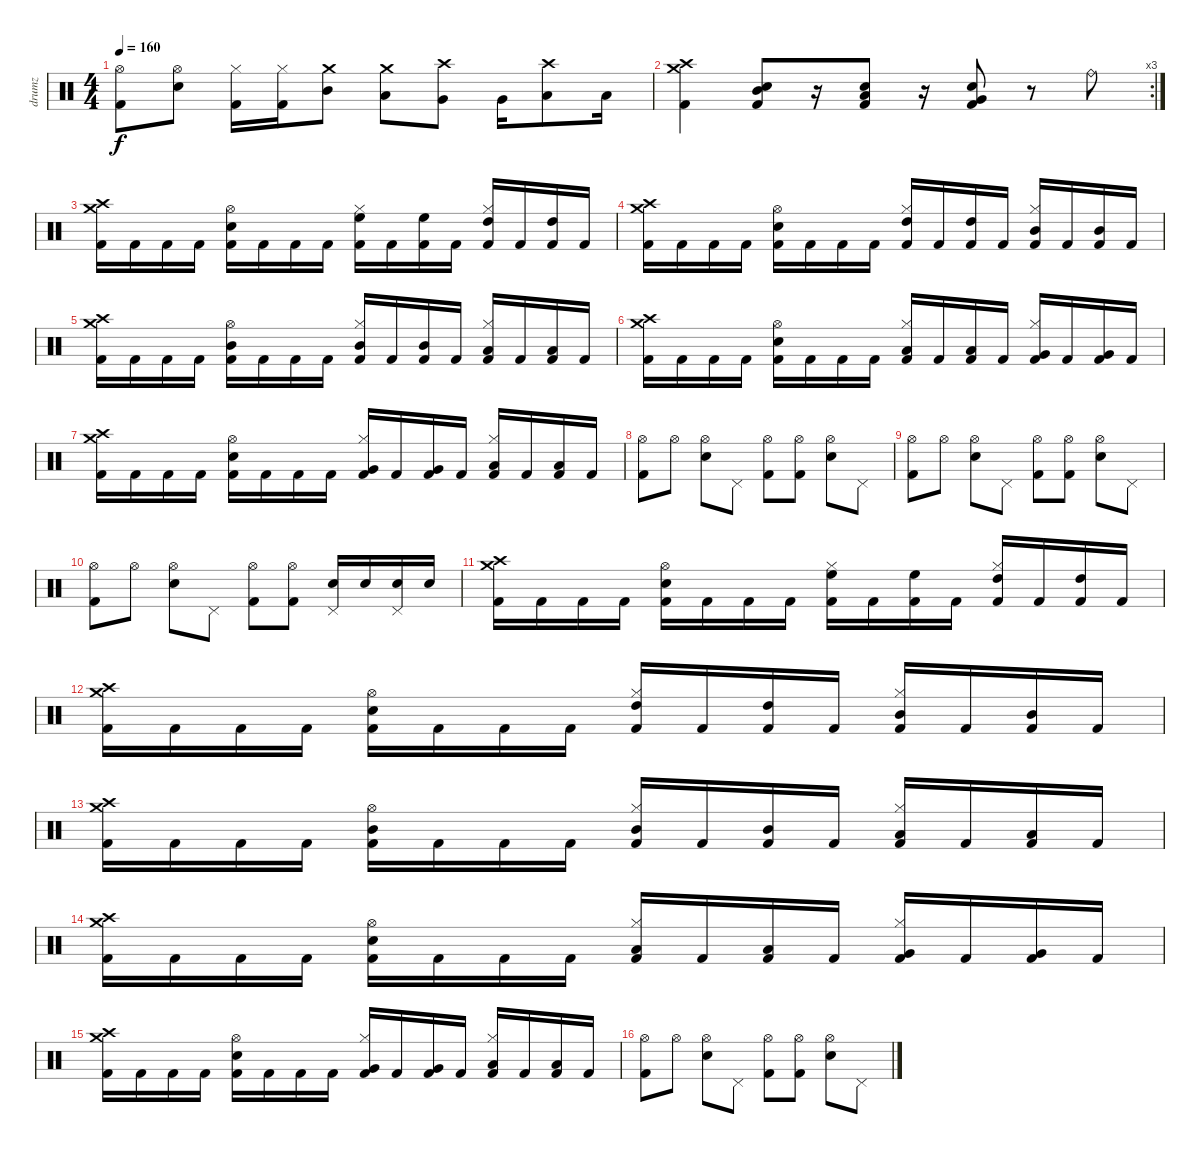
\track ("drumz" "drumz") {instrument percussion}
\staff {score}
\articulation defaults
\ts (4 4)
\tempo 160
\clef neutral
\ks c
("Hi-Hat (open)" "Kick (hit) 2").8{dy f} ("Hi-Hat (open)" "Snare (hit) 2").8 ("Hi-Hat (closed)" "Kick (hit) 2").16 ("Hi-Hat (closed)" "Kick (hit) 2").16 ("Crash medium (hit)" "Mid Tom (hit)").8 ("Crash medium (hit)" "Low Tom (hit)").8 ("Crash high (hit)" "Very Low Tom (hit)").8 "Very Low Tom (hit)".16 ("Crash high (hit)" "Low Floor Tom (hit)").8 "Low Floor Tom (hit)".16 |
\rc 3
("Crash medium (hit)" "Crash high (hit)" "Kick (hit) 2").4 ("Mid Tom (hit)" "Snare (hit) 2" "Kick (hit) 2").8 r.16 ("Low Tom (hit)" "Snare (hit) 2" "Kick (hit) 2").8 r.16 ("Very Low Tom (hit)" "Snare (hit) 2" "Kick (hit) 2").8 r.8 "Ride (bell)".8 |
("Crash medium (hit)" "Crash high (hit)" "Kick (hit) 2").16 "Kick (hit) 2".16 "Kick (hit) 2".16 "Kick (hit) 2".16 ("Hi-Hat (open)" "Snare (hit) 2" "Kick (hit) 2").16 "Kick (hit) 2".16 "Kick (hit) 2".16 "Kick (hit) 2".16 ("Hi-Hat (closed)" "High Floor Tom (hit)" "Kick (hit) 2").16 "Kick (hit) 2".16 ("High Floor Tom (hit)" "Kick (hit) 2").16 "Kick (hit) 2".16 ("Hi-Hat (closed)" "High Tom (hit)" "Kick (hit) 2").16 "Kick (hit) 2".16 ("High Tom (hit)" "Kick (hit) 2").16 "Kick (hit) 2".16 |
("Crash medium (hit)" "Crash high (hit)" "Kick (hit) 2").16 "Kick (hit) 2".16 "Kick (hit) 2".16 "Kick (hit) 2".16 ("Hi-Hat (open)" "Snare (hit) 2" "Kick (hit) 2").16 "Kick (hit) 2".16 "Kick (hit) 2".16 "Kick (hit) 2".16 ("Hi-Hat (closed)" "High Tom (hit)" "Kick (hit) 2").16 "Kick (hit) 2".16 ("High Tom (hit)" "Kick (hit) 2").16 "Kick (hit) 2".16 ("Hi-Hat (closed)" "Mid Tom (hit)" "Kick (hit) 2").16 "Kick (hit) 2".16 ("Mid Tom (hit)" "Kick (hit) 2").16 "Kick (hit) 2".16 |
("Crash medium (hit)" "Crash high (hit)" "Kick (hit) 2").16 "Kick (hit) 2".16 "Kick (hit) 2".16 "Kick (hit) 2".16 ("Hi-Hat (open)" "Mid Tom (hit)" "Kick (hit) 2").16 "Kick (hit) 2".16 "Kick (hit) 2".16 "Kick (hit) 2".16 ("Hi-Hat (closed)" "Mid Tom (hit)" "Kick (hit) 2").16 "Kick (hit) 2".16 ("Mid Tom (hit)" "Kick (hit) 2").16 "Kick (hit) 2".16 ("Hi-Hat (closed)" "Low Tom (hit)" "Kick (hit) 2").16 "Kick (hit) 2".16 ("Low Tom (hit)" "Kick (hit) 2").16 "Kick (hit) 2".16 |
("Crash medium (hit)" "Crash high (hit)" "Kick (hit) 2").16 "Kick (hit) 2".16 "Kick (hit) 2".16 "Kick (hit) 2".16 ("Hi-Hat (open)" "Snare (hit) 2" "Kick (hit) 2").16 "Kick (hit) 2".16 "Kick (hit) 2".16 "Kick (hit) 2".16 ("Hi-Hat (closed)" "Low Tom (hit)" "Kick (hit) 2").16 "Kick (hit) 2".16 ("Low Tom (hit)" "Kick (hit) 2").16 "Kick (hit) 2".16 ("Hi-Hat (closed)" "Very Low Tom (hit)" "Kick (hit) 2").16 "Kick (hit) 2".16 ("Very Low Tom (hit)" "Kick (hit) 2").16 "Kick (hit) 2".16 |
("Crash medium (hit)" "Crash high (hit)" "Kick (hit) 2").16 "Kick (hit) 2".16 "Kick (hit) 2".16 "Kick (hit) 2".16 ("Hi-Hat (open)" "Snare (hit) 2" "Kick (hit) 2").16 "Kick (hit) 2".16 "Kick (hit) 2".16 "Kick (hit) 2".16 ("Hi-Hat (closed)" "Very Low Tom (hit)" "Kick (hit) 2").16 "Kick (hit) 2".16 ("Very Low Tom (hit)" "Kick (hit) 2").16 "Kick (hit) 2".16 ("Hi-Hat (closed)" "Low Floor Tom (hit)" "Kick (hit) 2").16 "Kick (hit) 2".16 ("Low Floor Tom (hit)" "Kick (hit) 2").16 "Kick (hit) 2".16 |
("Hi-Hat (open)" "Kick (hit) 2").8 "Hi-Hat (open)".8 ("Hi-Hat (open)" "Snare (hit) 2").8 "Pedal Hi-Hat (hit)".8 ("Hi-Hat (open)" "Kick (hit) 2").8 ("Hi-Hat (open)" "Kick (hit) 2").8 ("Hi-Hat (open)" "Snare (hit) 2").8 "Pedal Hi-Hat (hit)".8 |
("Hi-Hat (open)" "Kick (hit) 2").8 "Hi-Hat (open)".8 ("Hi-Hat (open)" "Snare (hit) 2").8 "Pedal Hi-Hat (hit)".8 ("Hi-Hat (open)" "Kick (hit) 2").8 ("Hi-Hat (open)" "Kick (hit) 2").8 ("Hi-Hat (open)" "Snare (hit) 2").8 "Pedal Hi-Hat (hit)".8 |
("Hi-Hat (open)" "Kick (hit) 2").8 "Hi-Hat (open)".8 ("Hi-Hat (open)" "Snare (hit) 2").8 "Pedal Hi-Hat (hit)".8 ("Hi-Hat (open)" "Kick (hit) 2").8 ("Hi-Hat (open)" "Kick (hit) 2").8 ("Pedal Hi-Hat (hit)" "Snare (hit) 2").16 "Snare (hit) 2".16 ("Pedal Hi-Hat (hit)" "Snare (hit) 2").16 "Snare (hit) 2".16 |
("Crash medium (hit)" "Crash high (hit)" "Kick (hit) 2").16 "Kick (hit) 2".16 "Kick (hit) 2".16 "Kick (hit) 2".16 ("Hi-Hat (open)" "Snare (hit) 2" "Kick (hit) 2").16 "Kick (hit) 2".16 "Kick (hit) 2".16 "Kick (hit) 2".16 ("Hi-Hat (closed)" "High Floor Tom (hit)" "Kick (hit) 2").16 "Kick (hit) 2".16 ("High Floor Tom (hit)" "Kick (hit) 2").16 "Kick (hit) 2".16 ("Hi-Hat (closed)" "High Tom (hit)" "Kick (hit) 2").16 "Kick (hit) 2".16 ("High Tom (hit)" "Kick (hit) 2").16 "Kick (hit) 2".16 |
("Crash medium (hit)" "Crash high (hit)" "Kick (hit) 2").16 "Kick (hit) 2".16 "Kick (hit) 2".16 "Kick (hit) 2".16 ("Hi-Hat (open)" "Snare (hit) 2" "Kick (hit) 2").16 "Kick (hit) 2".16 "Kick (hit) 2".16 "Kick (hit) 2".16 ("Hi-Hat (closed)" "High Tom (hit)" "Kick (hit) 2").16 "Kick (hit) 2".16 ("High Tom (hit)" "Kick (hit) 2").16 "Kick (hit) 2".16 ("Hi-Hat (closed)" "Mid Tom (hit)" "Kick (hit) 2").16 "Kick (hit) 2".16 ("Mid Tom (hit)" "Kick (hit) 2").16 "Kick (hit) 2".16 |
("Crash medium (hit)" "Crash high (hit)" "Kick (hit) 2").16 "Kick (hit) 2".16 "Kick (hit) 2".16 "Kick (hit) 2".16 ("Hi-Hat (open)" "Mid Tom (hit)" "Kick (hit) 2").16 "Kick (hit) 2".16 "Kick (hit) 2".16 "Kick (hit) 2".16 ("Hi-Hat (closed)" "Mid Tom (hit)" "Kick (hit) 2").16 "Kick (hit) 2".16 ("Mid Tom (hit)" "Kick (hit) 2").16 "Kick (hit) 2".16 ("Hi-Hat (closed)" "Low Tom (hit)" "Kick (hit) 2").16 "Kick (hit) 2".16 ("Low Tom (hit)" "Kick (hit) 2").16 "Kick (hit) 2".16 |
("Crash medium (hit)" "Crash high (hit)" "Kick (hit) 2").16 "Kick (hit) 2".16 "Kick (hit) 2".16 "Kick (hit) 2".16 ("Hi-Hat (open)" "Snare (hit) 2" "Kick (hit) 2").16 "Kick (hit) 2".16 "Kick (hit) 2".16 "Kick (hit) 2".16 ("Hi-Hat (closed)" "Low Tom (hit)" "Kick (hit) 2").16 "Kick (hit) 2".16 ("Low Tom (hit)" "Kick (hit) 2").16 "Kick (hit) 2".16 ("Hi-Hat (closed)" "Very Low Tom (hit)" "Kick (hit) 2").16 "Kick (hit) 2".16 ("Very Low Tom (hit)" "Kick (hit) 2").16 "Kick (hit) 2".16 |
("Crash medium (hit)" "Crash high (hit)" "Kick (hit) 2").16 "Kick (hit) 2".16 "Kick (hit) 2".16 "Kick (hit) 2".16 ("Hi-Hat (open)" "Snare (hit) 2" "Kick (hit) 2").16 "Kick (hit) 2".16 "Kick (hit) 2".16 "Kick (hit) 2".16 ("Hi-Hat (closed)" "Very Low Tom (hit)" "Kick (hit) 2").16 "Kick (hit) 2".16 ("Very Low Tom (hit)" "Kick (hit) 2").16 "Kick (hit) 2".16 ("Hi-Hat (closed)" "Low Floor Tom (hit)" "Kick (hit) 2").16 "Kick (hit) 2".16 ("Low Floor Tom (hit)" "Kick (hit) 2").16 "Kick (hit) 2".16 |
("Hi-Hat (open)" "Kick (hit) 2").8 "Hi-Hat (open)".8 ("Hi-Hat (open)" "Snare (hit) 2").8 "Pedal Hi-Hat (hit)".8 ("Hi-Hat (open)" "Kick (hit) 2").8 ("Hi-Hat (open)" "Kick (hit) 2").8 ("Hi-Hat (open)" "Snare (hit) 2").8 "Pedal Hi-Hat (hit)".8
